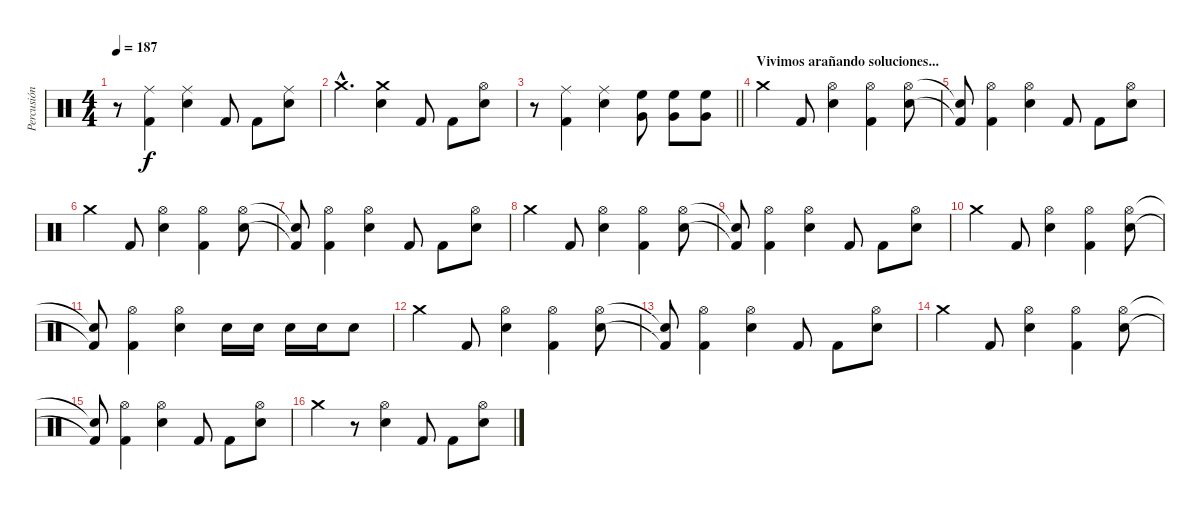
\track ("Percusión" "Percusión") {instrument percussion}
\staff {score}
\articulation defaults
\ts (4 4)
\tempo 187
\clef neutral
\ks c
r.8{dy f} ("Ride (middle)" "Kick (hit) 2").4 ("Ride (middle)" "Snare (hit) 2").4 "Kick (hit) 2".8 "Kick (hit) 2".8 ("Ride (middle)" "Snare (hit) 2").8 |
"Crash medium (hit)"{hac}.4{d} ("Crash medium (hit)" "Snare (hit) 2").4 "Kick (hit) 2".8 "Kick (hit) 2".8 ("Hi-Hat (open)" "Snare (hit) 2").8 |
\barLineRight lightlight
r.8 ("Ride (middle)" "Kick (hit) 2").4 ("Ride (middle)" "Snare (hit) 2").4 ("Very Low Tom (hit)" "High Floor Tom (hit)").8 ("Very Low Tom (hit)" "High Floor Tom (hit)").8 ("Very Low Tom (hit)" "High Floor Tom (hit)").8 |
\section ("" "Vivimos arañando soluciones...")
"Crash medium (hit)".4 "Kick (hit) 2".8 ("Hi-Hat (open)" "Snare (hit) 2").4 ("Hi-Hat (open)" "Kick (hit) 2").4 ("Hi-Hat (open)" "Snare (hit) 2").8 |
("Snare (hit)"{t} "Kick (hit) 2"{t}).8 ("Hi-Hat (open)" "Kick (hit) 2").4 ("Hi-Hat (open)" "Snare (hit) 2").4 "Kick (hit) 2".8 "Kick (hit) 2".8 ("Hi-Hat (open)" "Snare (hit) 2").8 |
"Crash medium (hit)".4 "Kick (hit) 2".8 ("Hi-Hat (open)" "Snare (hit) 2").4 ("Hi-Hat (open)" "Kick (hit) 2").4 ("Hi-Hat (open)" "Snare (hit) 2").8 |
("Snare (hit)"{t} "Kick (hit) 2"{t}).8 ("Hi-Hat (open)" "Kick (hit) 2").4 ("Hi-Hat (open)" "Snare (hit) 2").4 "Kick (hit) 2".8 "Kick (hit) 2".8 ("Hi-Hat (open)" "Snare (hit) 2").8 |
"Crash medium (hit)".4 "Kick (hit) 2".8 ("Hi-Hat (open)" "Snare (hit) 2").4 ("Hi-Hat (open)" "Kick (hit) 2").4 ("Hi-Hat (open)" "Snare (hit) 2").8 |
("Snare (hit)"{t} "Kick (hit) 2"{t}).8 ("Hi-Hat (open)" "Kick (hit) 2").4 ("Hi-Hat (open)" "Snare (hit) 2").4 "Kick (hit) 2".8 "Kick (hit) 2".8 ("Hi-Hat (open)" "Snare (hit) 2").8 |
"Crash medium (hit)".4 "Kick (hit) 2".8 ("Hi-Hat (open)" "Snare (hit) 2").4 ("Hi-Hat (open)" "Kick (hit) 2").4 ("Hi-Hat (open)" "Snare (hit) 2").8 |
("Snare (hit)"{t} "Kick (hit) 2"{t}).8 ("Hi-Hat (open)" "Kick (hit) 2").4 ("Hi-Hat (open)" "Snare (hit) 2").4 "Snare (hit) 2".16 "Snare (hit) 2".16 "Snare (hit) 2".16 "Snare (hit) 2".16 "Snare (hit) 2".8 |
"Crash medium (hit)".4 "Kick (hit) 2".8 ("Hi-Hat (open)" "Snare (hit) 2").4 ("Hi-Hat (open)" "Kick (hit) 2").4 ("Hi-Hat (open)" "Snare (hit) 2").8 |
("Snare (hit)"{t} "Kick (hit) 2"{t}).8 ("Hi-Hat (open)" "Kick (hit) 2").4 ("Hi-Hat (open)" "Snare (hit) 2").4 "Kick (hit) 2".8 "Kick (hit) 2".8 ("Hi-Hat (open)" "Snare (hit) 2").8 |
"Crash medium (hit)".4 "Kick (hit) 2".8 ("Hi-Hat (open)" "Snare (hit) 2").4 ("Hi-Hat (open)" "Kick (hit) 2").4 ("Hi-Hat (open)" "Snare (hit) 2").8 |
("Snare (hit)"{t} "Kick (hit) 2"{t}).8 ("Hi-Hat (open)" "Kick (hit) 2").4 ("Hi-Hat (open)" "Snare (hit) 2").4 "Kick (hit) 2".8 "Kick (hit) 2".8 ("Hi-Hat (open)" "Snare (hit) 2").8 |
"Crash medium (hit)".4 r.8 ("Hi-Hat (open)" "Snare (hit) 2").4 "Kick (hit) 2".8 "Kick (hit) 2".8 ("Hi-Hat (open)" "Snare (hit) 2").8
